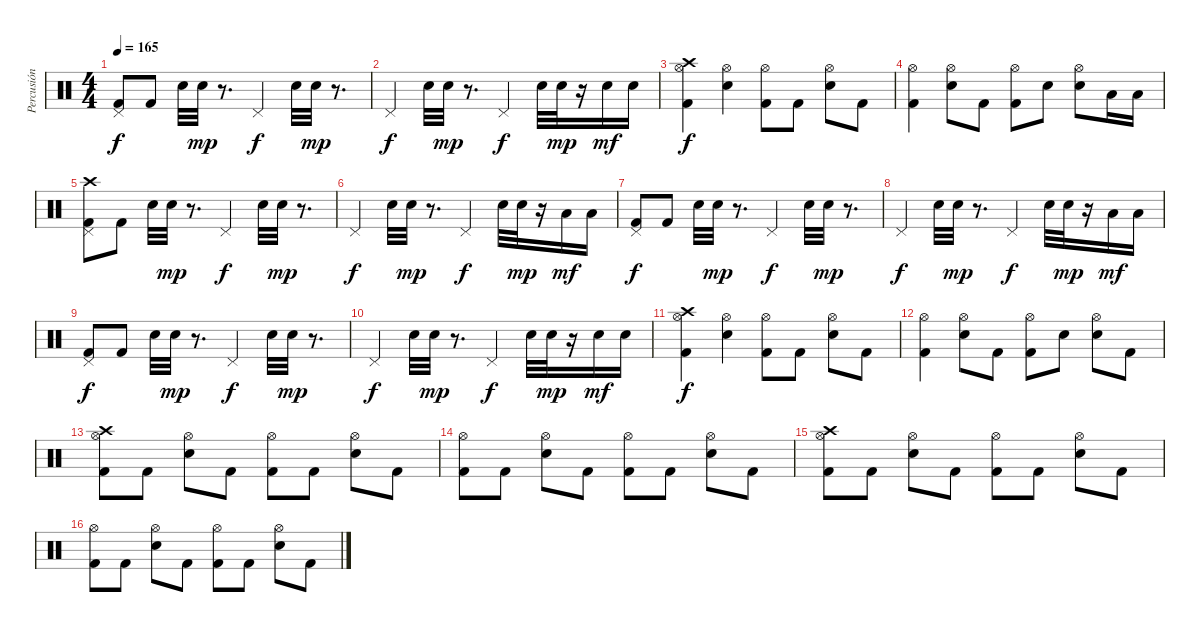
\track ("Percusión" "Percusión") {instrument percussion}
\staff {score}
\articulation defaults
\ts (4 4)
\tempo 165
\clef neutral
\ks c
("Pedal Hi-Hat (hit)" "Kick (hit) 2").8{dy f} "Kick (hit) 2".8 "Snare (hit) 2".32 "Snare (hit) 2".32{dy mp} r.8{d} "Pedal Hi-Hat (hit)".4{dy f} "Snare (hit) 2".32 "Snare (hit) 2".32{dy mp} r.8{d} |
"Pedal Hi-Hat (hit)".4{dy f} "Snare (hit) 2".32 "Snare (hit) 2".32{dy mp} r.8{d} "Pedal Hi-Hat (hit)".4{dy f} "Snare (hit) 2".32 "Snare (hit) 2".32{dy mp} r.16 "Snare (hit) 2".16{dy mf} "Snare (hit) 2".16 |
("Crash high (hit)" "Hi-Hat (open)" "Kick (hit) 2").4{dy f} ("Hi-Hat (open)" "Snare (hit) 2").4 ("Hi-Hat (open)" "Kick (hit) 2").8 "Kick (hit) 2".8 ("Hi-Hat (open)" "Snare (hit) 2").8 "Kick (hit) 2".8 |
("Hi-Hat (open)" "Kick (hit) 2").4 ("Hi-Hat (open)" "Snare (hit) 2").8 "Kick (hit) 2".8 ("Hi-Hat (open)" "Kick (hit) 2").8 "Snare (hit) 2".8 ("Hi-Hat (open)" "Snare (hit) 2").8 "Low Tom (hit)".16 "Low Tom (hit)".16 |
("Crash high (hit)" "Pedal Hi-Hat (hit)" "Kick (hit) 2").8 "Kick (hit) 2".8 "Snare (hit) 2".32 "Snare (hit) 2".32{dy mp} r.8{d} "Pedal Hi-Hat (hit)".4{dy f} "Snare (hit) 2".32 "Snare (hit) 2".32{dy mp} r.8{d} |
"Pedal Hi-Hat (hit)".4{dy f} "Snare (hit) 2".32 "Snare (hit) 2".32{dy mp} r.8{d} "Pedal Hi-Hat (hit)".4{dy f} "Snare (hit) 2".32 "Snare (hit) 2".32{dy mp} r.16 "Low Tom (hit)".16{dy mf} "Low Tom (hit)".16 |
("Pedal Hi-Hat (hit)" "Kick (hit) 2").8{dy f} "Kick (hit) 2".8 "Snare (hit) 2".32 "Snare (hit) 2".32{dy mp} r.8{d} "Pedal Hi-Hat (hit)".4{dy f} "Snare (hit) 2".32 "Snare (hit) 2".32{dy mp} r.8{d} |
"Pedal Hi-Hat (hit)".4{dy f} "Snare (hit) 2".32 "Snare (hit) 2".32{dy mp} r.8{d} "Pedal Hi-Hat (hit)".4{dy f} "Snare (hit) 2".32 "Snare (hit) 2".32{dy mp} r.16 "Low Tom (hit)".16{dy mf} "Low Tom (hit)".16 |
("Pedal Hi-Hat (hit)" "Kick (hit) 2").8{dy f} "Kick (hit) 2".8 "Snare (hit) 2".32 "Snare (hit) 2".32{dy mp} r.8{d} "Pedal Hi-Hat (hit)".4{dy f} "Snare (hit) 2".32 "Snare (hit) 2".32{dy mp} r.8{d} |
"Pedal Hi-Hat (hit)".4{dy f} "Snare (hit) 2".32 "Snare (hit) 2".32{dy mp} r.8{d} "Pedal Hi-Hat (hit)".4{dy f} "Snare (hit) 2".32 "Snare (hit) 2".32{dy mp} r.16 "Snare (hit) 2".16{dy mf} "Snare (hit) 2".16 |
("Crash high (hit)" "Hi-Hat (open)" "Kick (hit) 2").4{dy f} ("Hi-Hat (open)" "Snare (hit) 2").4 ("Hi-Hat (open)" "Kick (hit) 2").8 "Kick (hit) 2".8 ("Hi-Hat (open)" "Snare (hit) 2").8 "Kick (hit) 2".8 |
("Hi-Hat (open)" "Kick (hit) 2").4 ("Hi-Hat (open)" "Snare (hit) 2").8 "Kick (hit) 2".8 ("Hi-Hat (open)" "Kick (hit) 2").8 "Snare (hit) 2".8 ("Hi-Hat (open)" "Snare (hit) 2").8 "Kick (hit) 2".8 |
("Crash high (hit)" "Hi-Hat (open)" "Kick (hit) 2").8 "Kick (hit) 2".8 ("Hi-Hat (open)" "Snare (hit) 2").8 "Kick (hit) 2".8 ("Hi-Hat (open)" "Kick (hit) 2").8 "Kick (hit) 2".8 ("Hi-Hat (open)" "Snare (hit) 2").8 "Kick (hit) 2".8 |
("Hi-Hat (open)" "Kick (hit) 2").8 "Kick (hit) 2".8 ("Hi-Hat (open)" "Snare (hit) 2").8 "Kick (hit) 2".8 ("Hi-Hat (open)" "Kick (hit) 2").8 "Kick (hit) 2".8 ("Hi-Hat (open)" "Snare (hit) 2").8 "Kick (hit) 2".8 |
("Crash high (hit)" "Hi-Hat (open)" "Kick (hit) 2").8 "Kick (hit) 2".8 ("Hi-Hat (open)" "Snare (hit) 2").8 "Kick (hit) 2".8 ("Hi-Hat (open)" "Kick (hit) 2").8 "Kick (hit) 2".8 ("Hi-Hat (open)" "Snare (hit) 2").8 "Kick (hit) 2".8 |
("Hi-Hat (open)" "Kick (hit) 2").8 "Kick (hit) 2".8 ("Hi-Hat (open)" "Snare (hit) 2").8 "Kick (hit) 2".8 ("Hi-Hat (open)" "Kick (hit) 2").8 "Kick (hit) 2".8 ("Hi-Hat (open)" "Snare (hit) 2").8 "Kick (hit) 2".8
